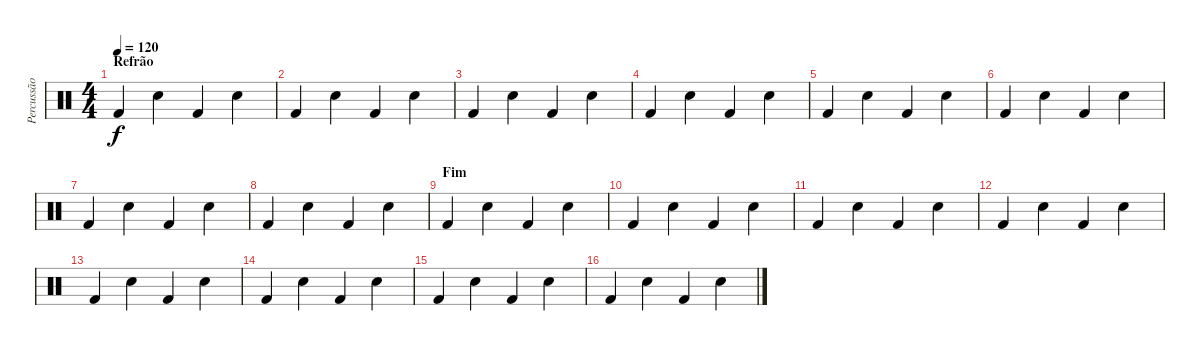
\track ("Percussão" "Percussão") {instrument percussion}
\staff {score}
\articulation defaults
\ts (4 4)
\section ("" "Refrão")
\tempo 120
\clef neutral
\ks c "Kick (hit) 2".4{dy f} "Snare (hit) 2".4 "Kick (hit) 2".4 "Snare (hit) 2".4
|
"Kick (hit) 2".4 "Snare (hit) 2".4 "Kick (hit) 2".4 "Snare (hit) 2".4 |
"Kick (hit) 2".4 "Snare (hit) 2".4 "Kick (hit) 2".4 "Snare (hit) 2".4 |
"Kick (hit) 2".4 "Snare (hit) 2".4 "Kick (hit) 2".4 "Snare (hit) 2".4 |
"Kick (hit) 2".4 "Snare (hit) 2".4 "Kick (hit) 2".4 "Snare (hit) 2".4 |
"Kick (hit) 2".4 "Snare (hit) 2".4 "Kick (hit) 2".4 "Snare (hit) 2".4 |
"Kick (hit) 2".4 "Snare (hit) 2".4 "Kick (hit) 2".4 "Snare (hit) 2".4 |
"Kick (hit) 2".4 "Snare (hit) 2".4 "Kick (hit) 2".4 "Snare (hit) 2".4 |
\section ("" "Fim")
"Kick (hit) 2".4 "Snare (hit) 2".4 "Kick (hit) 2".4 "Snare (hit) 2".4 |
"Kick (hit) 2".4 "Snare (hit) 2".4 "Kick (hit) 2".4 "Snare (hit) 2".4 |
"Kick (hit) 2".4 "Snare (hit) 2".4 "Kick (hit) 2".4 "Snare (hit) 2".4 |
"Kick (hit) 2".4 "Snare (hit) 2".4 "Kick (hit) 2".4 "Snare (hit) 2".4 |
"Kick (hit) 2".4 "Snare (hit) 2".4 "Kick (hit) 2".4 "Snare (hit) 2".4 |
"Kick (hit) 2".4 "Snare (hit) 2".4 "Kick (hit) 2".4 "Snare (hit) 2".4 |
"Kick (hit) 2".4 "Snare (hit) 2".4 "Kick (hit) 2".4 "Snare (hit) 2".4 |
"Kick (hit) 2".4 "Snare (hit) 2".4 "Kick (hit) 2".4 "Snare (hit) 2".4
